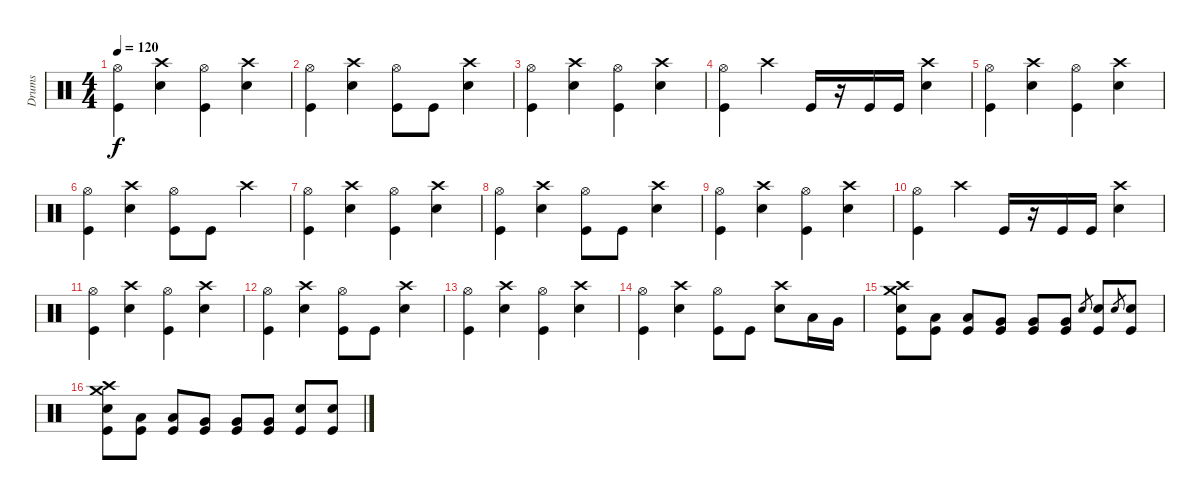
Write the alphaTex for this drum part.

\track ("Drums" "Drums") {instrument percussion}
\staff {score}
\articulation defaults
\ts (4 4)
\tempo 120
\clef neutral
\ks c
("Hi-Hat (open)" "Kick (hit)").4{dy f} ("Crash high (hit)" "Snare (hit) 2").4 ("Hi-Hat (open)" "Kick (hit)").4 ("Crash high (hit)" "Snare (hit) 2").4 |
("Hi-Hat (open)" "Kick (hit)").4 ("Crash high (hit)" "Snare (hit) 2").4 ("Hi-Hat (open)" "Kick (hit)").8 "Kick (hit)".8 ("Crash high (hit)" "Snare (hit) 2").4 |
("Hi-Hat (open)" "Kick (hit)").4 ("Crash high (hit)" "Snare (hit) 2").4 ("Hi-Hat (open)" "Kick (hit)").4 ("Crash high (hit)" "Snare (hit) 2").4 |
("Hi-Hat (open)" "Kick (hit)").4 "Crash high (hit)".4 "Kick (hit)".16 r.16 "Kick (hit)".16 "Kick (hit)".16 ("Crash high (hit)" "Snare (hit) 2").4 |
("Hi-Hat (open)" "Kick (hit)").4 ("Crash high (hit)" "Snare (hit) 2").4 ("Hi-Hat (open)" "Kick (hit)").4 ("Crash high (hit)" "Snare (hit) 2").4 |
("Hi-Hat (open)" "Kick (hit)").4 ("Crash high (hit)" "Snare (hit) 2").4 ("Hi-Hat (open)" "Kick (hit)").8 "Kick (hit)".8 "Crash high (hit)".4 |
("Hi-Hat (open)" "Kick (hit)").4 ("Crash high (hit)" "Snare (hit) 2").4 ("Hi-Hat (open)" "Kick (hit)").4 ("Crash high (hit)" "Snare (hit) 2").4 |
("Hi-Hat (open)" "Kick (hit)").4 ("Crash high (hit)" "Snare (hit) 2").4 ("Hi-Hat (open)" "Kick (hit)").8 "Kick (hit)".8 ("Crash high (hit)" "Snare (hit) 2").4 |
("Hi-Hat (open)" "Kick (hit)").4 ("Crash high (hit)" "Snare (hit) 2").4 ("Hi-Hat (open)" "Kick (hit)").4 ("Crash high (hit)" "Snare (hit) 2").4 |
("Hi-Hat (open)" "Kick (hit)").4 "Crash high (hit)".4 "Kick (hit)".16 r.16 "Kick (hit)".16 "Kick (hit)".16 ("Crash high (hit)" "Snare (hit) 2").4 |
("Hi-Hat (open)" "Kick (hit)").4 ("Crash high (hit)" "Snare (hit) 2").4 ("Hi-Hat (open)" "Kick (hit)").4 ("Crash high (hit)" "Snare (hit) 2").4 |
("Hi-Hat (open)" "Kick (hit)").4 ("Crash high (hit)" "Snare (hit) 2").4 ("Hi-Hat (open)" "Kick (hit)").8 "Kick (hit)".8 ("Crash high (hit)" "Snare (hit) 2").4 |
("Hi-Hat (open)" "Kick (hit)").4 ("Crash high (hit)" "Snare (hit) 2").4 ("Hi-Hat (open)" "Kick (hit)").4 ("Crash high (hit)" "Snare (hit) 2").4 |
("Hi-Hat (open)" "Kick (hit)").4 ("Crash high (hit)" "Snare (hit) 2").4 ("Hi-Hat (open)" "Kick (hit)").8 "Kick (hit)".8 ("Crash high (hit)" "Snare (hit) 2").8 "Low Tom (hit)".16 "Very Low Tom (hit)".16 |
("Crash high (hit)" "Crash medium (hit)" "Snare (hit) 2" "Kick (hit)").8 ("Low Tom (hit)" "Kick (hit)").8 ("Low Tom (hit)" "Kick (hit)").8 ("Very Low Tom (hit)" "Kick (hit)").8 ("Very Low Tom (hit)" "Kick (hit)").8 ("Very Low Tom (hit)" "Kick (hit)").8 "Snare (hit) 2".8{gr} ("Snare (hit) 2" "Kick (hit)").8 "Snare (hit) 2".8{gr} ("Snare (hit) 2" "Kick (hit)").8 |
("Crash high (hit)" "Crash medium (hit)" "Snare (hit) 2" "Kick (hit)").8 ("Low Tom (hit)" "Kick (hit)").8 ("Low Tom (hit)" "Kick (hit)").8 ("Very Low Tom (hit)" "Kick (hit)").8 ("Very Low Tom (hit)" "Kick (hit)").8 ("Very Low Tom (hit)" "Kick (hit)").8 ("Snare (hit) 2" "Kick (hit)").8 ("Snare (hit) 2" "Kick (hit)").8
